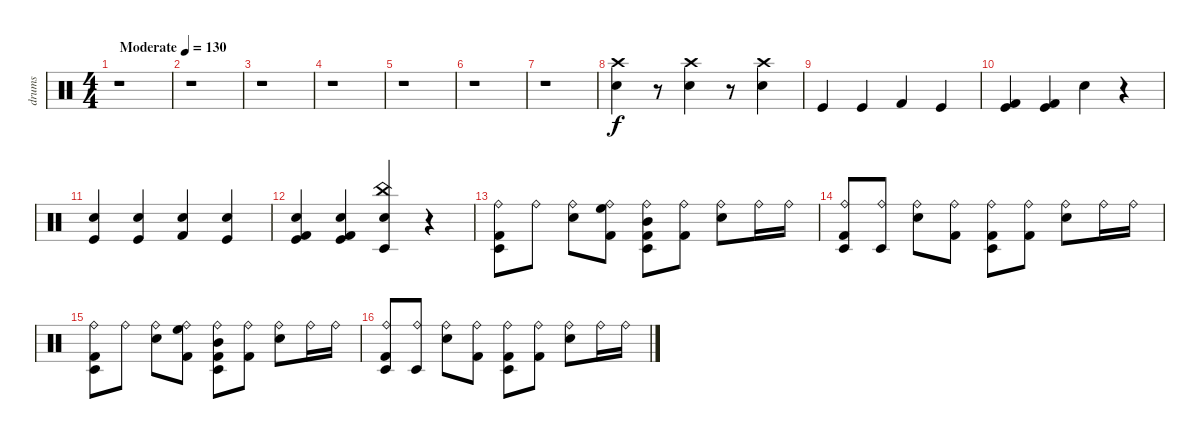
\track ("drums" "drums") {instrument percussion}
\staff {score}
\articulation defaults
\ts (4 4)
\tempo (130 "Moderate")
\clef neutral
\ks c
r.1{dy f} |
r.1 |
r.1 |
r.1 |
r.1 |
r.1 |
r.1 |
("Crash high (hit)" "Electric Snare (hit)").4 r.8 ("Crash high (hit)" "Electric Snare (hit)").4 r.8 ("Electric Snare (hit)" "Crash high (hit)").4 |
"Kick (hit)".4 "Kick (hit)".4 "Kick (hit) 2".4 "Kick (hit)".4 |
("Kick (hit) 2" "Kick (hit)").4 ("Kick (hit) 2" "Kick (hit)").4 "Snare (hit) 2".4 r.4 |
("Hand Clap (hit)" "Kick (hit)").4 ("Hand Clap (hit)" "Kick (hit)").4 ("Hand Clap (hit)" "Kick (hit) 2").4 ("Hand Clap (hit)" "Kick (hit)").4 |
("Kick (hit) 2" "Hand Clap (hit)" "Kick (hit)").4 ("Kick (hit)" "Hand Clap (hit)" "Kick (hit) 2").4 ("China (hit)" "Snare (hit) 2" "Timbale low (hit)").4 r.4 |
("Timbale low (hit)" "Ride (bell)" "Kick (hit) 2").8 "Ride (bell)".8 ("Electric Snare (hit)" "Ride (bell)").8 ("High Floor Tom (hit)" "Ride (bell)" "Kick (hit) 2").8 ("Ride (bell)" "Mid Tom (hit)" "Timbale low (hit)" "Kick (hit) 2").8 ("Kick (hit) 2" "Ride (bell)").8 ("Electric Snare (hit)" "Ride (bell)").8 "Ride (bell)".16 "Ride (bell)".16 |
("Ride (bell)" "Timbale low (hit)" "Kick (hit) 2").8 ("Timbale low (hit)" "Ride (bell)").8 ("Electric Snare (hit)" "Ride (bell)").8 ("Ride (bell)" "Kick (hit) 2").8 ("Timbale low (hit)" "Kick (hit) 2" "Ride (bell)").8 ("Kick (hit) 2" "Ride (bell)").8 ("Ride (bell)" "Electric Snare (hit)").8 "Ride (bell)".16 "Ride (bell)".16 |
("Timbale low (hit)" "Ride (bell)" "Kick (hit) 2").8 "Ride (bell)".8 ("Ride (bell)" "Electric Snare (hit)").8 ("High Floor Tom (hit)" "Ride (bell)" "Kick (hit) 2").8 ("Timbale low (hit)" "Mid Tom (hit)" "Ride (bell)" "Kick (hit) 2").8 ("Kick (hit) 2" "Ride (bell)").8 ("Ride (bell)" "Electric Snare (hit)").8 "Ride (bell)".16 "Ride (bell)".16 |
("Timbale low (hit)" "Kick (hit) 2" "Ride (bell)").8 ("Timbale low (hit)" "Ride (bell)").8 ("Electric Snare (hit)" "Ride (bell)").8 ("Kick (hit) 2" "Ride (bell)").8 ("Kick (hit) 2" "Ride (bell)" "Timbale low (hit)").8 ("Kick (hit) 2" "Ride (bell)").8 ("Electric Snare (hit)" "Ride (bell)").8 "Ride (bell)".16 "Ride (bell)".16
